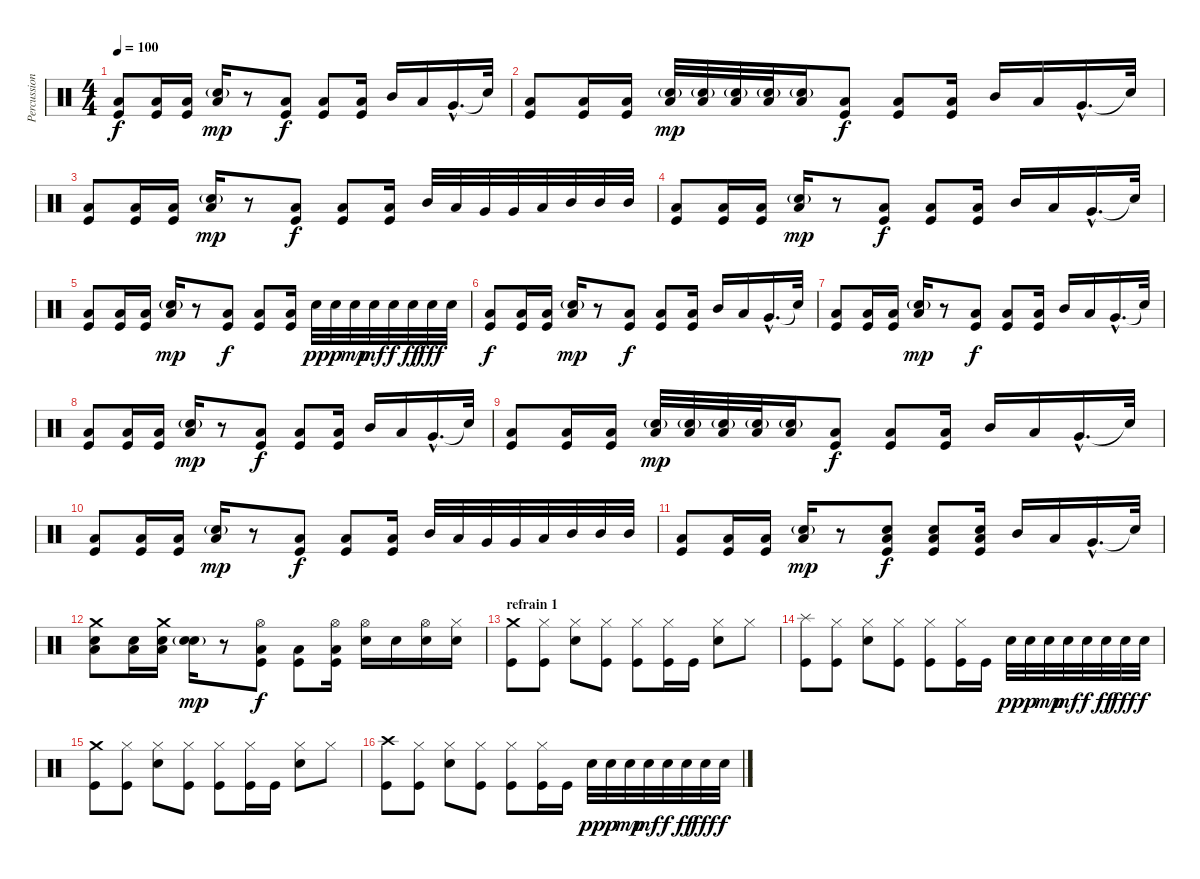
\track ("Percussions" "Percussion") {instrument percussion}
\staff {score}
\articulation defaults
\ts (4 4)
\tempo 100
\clef neutral
\ks c
("Kick (hit)" "Low Floor Tom (hit)").8{dy f} ("Kick (hit)" "Low Floor Tom (hit)").16 ("Kick (hit)" "Low Floor Tom (hit)").16 ("Electric Snare (hit)"{g} "Low Tom (hit)").16{dy mp} r.8 ("Kick (hit)" "Low Floor Tom (hit)").8{dy f} ("Kick (hit)" "Low Floor Tom (hit)").8 ("Kick (hit)" "Low Floor Tom (hit)").16 "Mid Tom (hit)".16 "Low Tom (hit)".16 "Very Low Tom (hit)"{hac}.16{d} "Snare (hit)"{t}.32 |
("Kick (hit)" "Low Floor Tom (hit)").8 ("Kick (hit)" "Low Floor Tom (hit)").16 ("Kick (hit)" "Low Floor Tom (hit)").16 ("Electric Snare (hit)"{g} "Low Tom (hit)").32{dy mp} ("Electric Snare (hit)"{g} "Low Tom (hit)").32 ("Electric Snare (hit)"{g} "Low Tom (hit)").32 ("Electric Snare (hit)"{g} "Low Tom (hit)").32 ("Electric Snare (hit)"{g} "Low Tom (hit)").16 ("Kick (hit)" "Low Floor Tom (hit)").8{dy f} ("Kick (hit)" "Low Floor Tom (hit)").8 ("Kick (hit)" "Low Floor Tom (hit)").16 "Mid Tom (hit)".16 "Low Tom (hit)".16 "Very Low Tom (hit)"{hac}.16{d} "Snare (hit)"{t}.32 |
("Kick (hit)" "Low Floor Tom (hit)").8 ("Kick (hit)" "Low Floor Tom (hit)").16 ("Kick (hit)" "Low Floor Tom (hit)").16 ("Electric Snare (hit)"{g} "Low Tom (hit)").16{dy mp} r.8 ("Kick (hit)" "Low Floor Tom (hit)").8{dy f} ("Kick (hit)" "Low Floor Tom (hit)").8 ("Kick (hit)" "Low Floor Tom (hit)").16 "Mid Tom (hit)".32 "Low Tom (hit)".32 "Very Low Tom (hit)".32 "Very Low Tom (hit)".32 "Low Tom (hit)".32 "Mid Tom (hit)".32 "Mid Tom (hit)".32 "Mid Tom (hit)".32 |
("Kick (hit)" "Low Floor Tom (hit)").8 ("Kick (hit)" "Low Floor Tom (hit)").16 ("Kick (hit)" "Low Floor Tom (hit)").16 ("Electric Snare (hit)"{g} "Low Tom (hit)").16{dy mp} r.8 ("Kick (hit)" "Low Floor Tom (hit)").8{dy f} ("Kick (hit)" "Low Floor Tom (hit)").8 ("Kick (hit)" "Low Floor Tom (hit)").16 "Mid Tom (hit)".16 "Low Tom (hit)".16 "Very Low Tom (hit)"{hac}.16{d} "Snare (hit)"{t}.32 |
("Kick (hit)" "Low Floor Tom (hit)").8 ("Kick (hit)" "Low Floor Tom (hit)").16 ("Kick (hit)" "Low Floor Tom (hit)").16 ("Electric Snare (hit)"{g} "Low Tom (hit)").16{dy mp} r.8 ("Kick (hit)" "Low Floor Tom (hit)").8{dy f} ("Kick (hit)" "Low Floor Tom (hit)").8 ("Kick (hit)" "Low Floor Tom (hit)").16 "Electric Snare (hit)".32{dy pp} "Electric Snare (hit)".32{dy p} "Electric Snare (hit)".32{dy mp} "Electric Snare (hit)".32{dy mf} "Electric Snare (hit)".32{dy f} "Electric Snare (hit)".32{dy ff} "Electric Snare (hit)".32{dy fff} "Electric Snare (hit)".32 |
("Kick (hit)" "Low Floor Tom (hit)").8{dy f} ("Kick (hit)" "Low Floor Tom (hit)").16 ("Kick (hit)" "Low Floor Tom (hit)").16 ("Electric Snare (hit)"{g} "Low Tom (hit)").16{dy mp} r.8 ("Kick (hit)" "Low Floor Tom (hit)").8{dy f} ("Kick (hit)" "Low Floor Tom (hit)").8 ("Kick (hit)" "Low Floor Tom (hit)").16 "Mid Tom (hit)".16 "Low Tom (hit)".16 "Very Low Tom (hit)"{hac}.16{d} "Snare (hit)"{t}.32 |
("Kick (hit)" "Low Floor Tom (hit)").8 ("Kick (hit)" "Low Floor Tom (hit)").16 ("Kick (hit)" "Low Floor Tom (hit)").16 ("Electric Snare (hit)"{g} "Low Tom (hit)").16{dy mp} r.8 ("Kick (hit)" "Low Floor Tom (hit)").8{dy f} ("Kick (hit)" "Low Floor Tom (hit)").8 ("Kick (hit)" "Low Floor Tom (hit)").16 "Mid Tom (hit)".16 "Low Tom (hit)".16 "Very Low Tom (hit)"{hac}.16{d} "Snare (hit)"{t}.32 |
("Kick (hit)" "Low Floor Tom (hit)").8 ("Kick (hit)" "Low Floor Tom (hit)").16 ("Kick (hit)" "Low Floor Tom (hit)").16 ("Electric Snare (hit)"{g} "Low Tom (hit)").16{dy mp} r.8 ("Kick (hit)" "Low Floor Tom (hit)").8{dy f} ("Kick (hit)" "Low Floor Tom (hit)").8 ("Kick (hit)" "Low Floor Tom (hit)").16 "Mid Tom (hit)".16 "Low Tom (hit)".16 "Very Low Tom (hit)"{hac}.16{d} "Snare (hit)"{t}.32 |
("Kick (hit)" "Low Floor Tom (hit)").8 ("Kick (hit)" "Low Floor Tom (hit)").16 ("Kick (hit)" "Low Floor Tom (hit)").16 ("Electric Snare (hit)"{g} "Low Tom (hit)").32{dy mp} ("Electric Snare (hit)"{g} "Low Tom (hit)").32 ("Electric Snare (hit)"{g} "Low Tom (hit)").32 ("Electric Snare (hit)"{g} "Low Tom (hit)").32 ("Electric Snare (hit)"{g} "Low Tom (hit)").16 ("Kick (hit)" "Low Floor Tom (hit)").8{dy f} ("Kick (hit)" "Low Floor Tom (hit)").8 ("Kick (hit)" "Low Floor Tom (hit)").16 "Mid Tom (hit)".16 "Low Tom (hit)".16 "Very Low Tom (hit)"{hac}.16{d} "Snare (hit)"{t}.32 |
("Kick (hit)" "Low Floor Tom (hit)").8 ("Kick (hit)" "Low Floor Tom (hit)").16 ("Kick (hit)" "Low Floor Tom (hit)").16 ("Electric Snare (hit)"{g} "Low Tom (hit)").16{dy mp} r.8 ("Kick (hit)" "Low Floor Tom (hit)").8{dy f} ("Kick (hit)" "Low Floor Tom (hit)").8 ("Kick (hit)" "Low Floor Tom (hit)").16 "Mid Tom (hit)".32 "Low Tom (hit)".32 "Very Low Tom (hit)".32 "Very Low Tom (hit)".32 "Low Tom (hit)".32 "Mid Tom (hit)".32 "Mid Tom (hit)".32 "Mid Tom (hit)".32 |
("Kick (hit)" "Low Floor Tom (hit)").8 ("Kick (hit)" "Low Floor Tom (hit)").16 ("Kick (hit)" "Low Floor Tom (hit)").16 ("Electric Snare (hit)"{g} "Low Tom (hit)").16{dy mp} r.8 ("Electric Snare (hit)" "Kick (hit)" "Low Floor Tom (hit)").8{dy f} ("Electric Snare (hit)" "Kick (hit)" "Low Floor Tom (hit)").8 ("Electric Snare (hit)" "Kick (hit)" "Low Floor Tom (hit)").16 "Mid Tom (hit)".16 "Low Tom (hit)".16 "Very Low Tom (hit)"{hac}.16{d} "Snare (hit)"{t}.32 |
("Crash medium (hit)" "Electric Snare (hit)" "Low Floor Tom (hit)").8 ("Electric Snare (hit)" "Low Floor Tom (hit)").16 ("Crash medium (hit)" "Electric Snare (hit)" "Low Floor Tom (hit)").16 ("Electric Snare (hit)"{g} "Electric Snare (hit)").16{dy mp} r.8 ("Hi-Hat (open)" "Kick (hit)" "Low Floor Tom (hit)").8{dy f} ("Kick (hit)" "Low Floor Tom (hit)").8 ("Hi-Hat (open)" "Kick (hit)" "Low Floor Tom (hit)").16 ("Hi-Hat (open)" "Electric Snare (hit)").16 "Electric Snare (hit)".16 ("Hi-Hat (open)" "Electric Snare (hit)").16 ("Hi-Hat (closed)" "Electric Snare (hit)").16 |
\section ("" "refrain 1")
("Crash medium (hit)" "Kick (hit)").8 ("Hi-Hat (closed)" "Kick (hit)").8 ("Hi-Hat (closed)" "Electric Snare (hit)").8 ("Hi-Hat (closed)" "Kick (hit)").8 ("Hi-Hat (closed)" "Kick (hit)").8 ("Hi-Hat (closed)" "Kick (hit)").16 "Kick (hit)".16 ("Hi-Hat (closed)" "Electric Snare (hit)").8 "Hi-Hat (closed)".8 |
("Splash (hit)" "Kick (hit)").8 ("Hi-Hat (closed)" "Kick (hit)").8 ("Hi-Hat (closed)" "Electric Snare (hit)").8 ("Hi-Hat (closed)" "Kick (hit)").8 ("Hi-Hat (closed)" "Kick (hit)").8 ("Hi-Hat (closed)" "Kick (hit)").16 "Kick (hit)".16 "Electric Snare (hit)".32{dy pp} "Electric Snare (hit)".32{dy p} "Electric Snare (hit)".32{dy mp} "Electric Snare (hit)".32{dy mf} "Electric Snare (hit)".32{dy f} "Electric Snare (hit)".32{dy ff} "Electric Snare (hit)".32{dy fff} "Electric Snare (hit)".32{dy f} |
("Crash medium (hit)" "Kick (hit)").8 ("Hi-Hat (closed)" "Kick (hit)").8 ("Hi-Hat (closed)" "Electric Snare (hit)").8 ("Hi-Hat (closed)" "Kick (hit)").8 ("Hi-Hat (closed)" "Kick (hit)").8 ("Hi-Hat (closed)" "Kick (hit)").16 "Kick (hit)".16 ("Hi-Hat (closed)" "Electric Snare (hit)").8 "Hi-Hat (closed)".8 |
("Crash high (hit)" "Kick (hit)").8 ("Hi-Hat (closed)" "Kick (hit)").8 ("Hi-Hat (closed)" "Electric Snare (hit)").8 ("Hi-Hat (closed)" "Kick (hit)").8 ("Hi-Hat (closed)" "Kick (hit)").8 ("Hi-Hat (closed)" "Kick (hit)").16 "Kick (hit)".16 "Electric Snare (hit)".32{dy pp} "Electric Snare (hit)".32{dy p} "Electric Snare (hit)".32{dy mp} "Electric Snare (hit)".32{dy mf} "Electric Snare (hit)".32{dy f} "Electric Snare (hit)".32{dy ff} "Electric Snare (hit)".32{dy fff} "Electric Snare (hit)".32{dy f}
